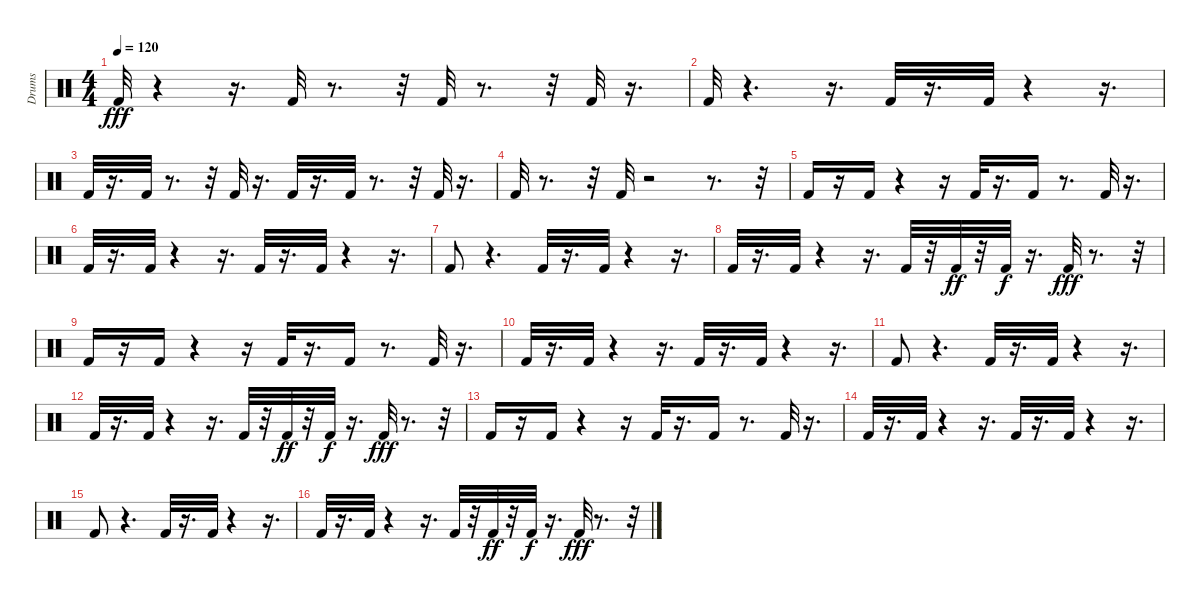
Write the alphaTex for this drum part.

\track ("Drums" "Drums") {instrument percussion}
\staff {score}
\articulation defaults
\ts (4 4)
\tempo 120
\clef neutral
\ks c "Kick (hit) 2".32{dy fff}
r.4 r.16{d} "Kick (hit) 2".32 r.8{d} r.32 "Kick (hit) 2".32 r.8{d} r.32 "Kick (hit) 2".32 r.16{d} |
"Kick (hit) 2".32 r.4{d} r.16{d} "Kick (hit) 2".32 r.16{d} "Kick (hit) 2".32 r.4 r.16{d} |
"Kick (hit) 2".32 r.16{d} "Kick (hit) 2".32 r.8{d} r.32 "Kick (hit) 2".32 r.16{d} "Kick (hit) 2".32 r.16{d} "Kick (hit) 2".32 r.8{d} r.32 "Kick (hit) 2".32 r.16{d} |
"Kick (hit) 2".32 r.8{d} r.32 "Kick (hit) 2".32 r.2 r.8{d} r.32 |
"Kick (hit) 2".16 r.16 "Kick (hit) 2".16 r.4 r.16 "Kick (hit) 2".32 r.16{d} "Kick (hit) 2".16 r.8{d} "Kick (hit) 2".32 r.16{d} |
"Kick (hit) 2".32 r.16{d} "Kick (hit) 2".32 r.4 r.16{d} "Kick (hit) 2".32 r.16{d} "Kick (hit) 2".32 r.4 r.16{d} |
"Kick (hit) 2".8 r.4{d} "Kick (hit) 2".32 r.16{d} "Kick (hit) 2".32 r.4 r.16{d} |
"Kick (hit) 2".32 r.16{d} "Kick (hit) 2".32 r.4 r.16{d} "Kick (hit) 2".32 r.32 "Kick (hit) 2".32{dy ff} r.32 "Kick (hit) 2".32{dy f} r.16{d} "Kick (hit) 2".32{dy fff} r.8{d} r.32 |
"Kick (hit) 2".16 r.16 "Kick (hit) 2".16 r.4 r.16 "Kick (hit) 2".32 r.16{d} "Kick (hit) 2".16 r.8{d} "Kick (hit) 2".32 r.16{d} |
"Kick (hit) 2".32 r.16{d} "Kick (hit) 2".32 r.4 r.16{d} "Kick (hit) 2".32 r.16{d} "Kick (hit) 2".32 r.4 r.16{d} |
"Kick (hit) 2".8 r.4{d} "Kick (hit) 2".32 r.16{d} "Kick (hit) 2".32 r.4 r.16{d} |
"Kick (hit) 2".32 r.16{d} "Kick (hit) 2".32 r.4 r.16{d} "Kick (hit) 2".32 r.32 "Kick (hit) 2".32{dy ff} r.32 "Kick (hit) 2".32{dy f} r.16{d} "Kick (hit) 2".32{dy fff} r.8{d} r.32 |
"Kick (hit) 2".16 r.16 "Kick (hit) 2".16 r.4 r.16 "Kick (hit) 2".32 r.16{d} "Kick (hit) 2".16 r.8{d} "Kick (hit) 2".32 r.16{d} |
"Kick (hit) 2".32 r.16{d} "Kick (hit) 2".32 r.4 r.16{d} "Kick (hit) 2".32 r.16{d} "Kick (hit) 2".32 r.4 r.16{d} |
"Kick (hit) 2".8 r.4{d} "Kick (hit) 2".32 r.16{d} "Kick (hit) 2".32 r.4 r.16{d} |
"Kick (hit) 2".32 r.16{d} "Kick (hit) 2".32 r.4 r.16{d} "Kick (hit) 2".32 r.32 "Kick (hit) 2".32{dy ff} r.32 "Kick (hit) 2".32{dy f} r.16{d} "Kick (hit) 2".32{dy fff} r.8{d} r.32
